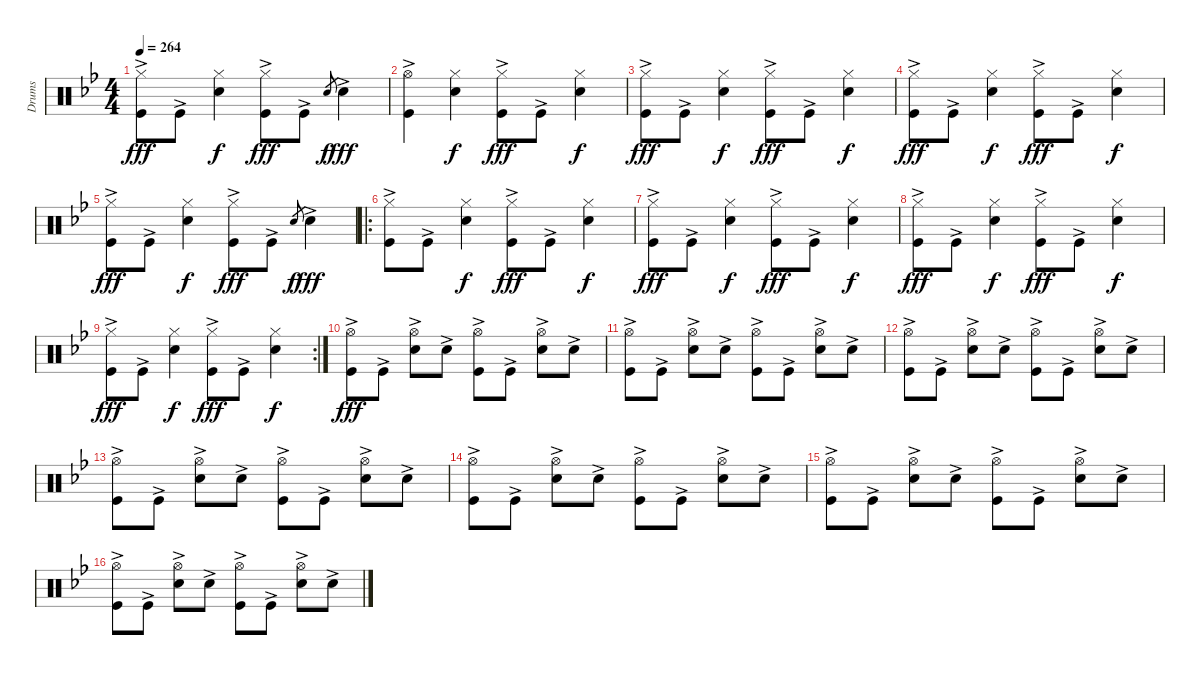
\track ("Drums" "Drums") {instrument percussion}
\staff {score}
\articulation defaults
\ts (4 4)
\tempo 264
\clef neutral
\ks gminor
("Hi-Hat (closed)" "Kick (hit)"{ac}).8{dy fff} "Kick (hit)"{ac}.8 ("Hi-Hat (closed)" "Snare (hit) 2").4{dy f} ("Hi-Hat (closed)" "Kick (hit)"{ac}).8{dy fff} "Kick (hit)"{ac}.8 "Snare (hit) 2".8{gr dy f} "Snare (hit) 2"{ac}.4{dy fff} |
("Hi-Hat (open)" "Kick (hit)"{ac}).4 ("Hi-Hat (closed)" "Snare (hit) 2").4{dy f} ("Hi-Hat (closed)" "Kick (hit)"{ac}).8{dy fff} "Kick (hit)"{ac}.8 ("Hi-Hat (closed)" "Snare (hit) 2").4{dy f} |
("Hi-Hat (closed)" "Kick (hit)"{ac}).8{dy fff} "Kick (hit)"{ac}.8 ("Hi-Hat (closed)" "Snare (hit) 2").4{dy f} ("Hi-Hat (closed)" "Kick (hit)"{ac}).8{dy fff} "Kick (hit)"{ac}.8 ("Hi-Hat (closed)" "Snare (hit) 2").4{dy f} |
("Hi-Hat (closed)" "Kick (hit)"{ac}).8{dy fff} "Kick (hit)"{ac}.8 ("Hi-Hat (closed)" "Snare (hit) 2").4{dy f} ("Hi-Hat (closed)" "Kick (hit)"{ac}).8{dy fff} "Kick (hit)"{ac}.8 ("Hi-Hat (closed)" "Snare (hit) 2").4{dy f} |
("Hi-Hat (closed)" "Kick (hit)"{ac}).8{dy fff} "Kick (hit)"{ac}.8 ("Hi-Hat (closed)" "Snare (hit) 2").4{dy f} ("Hi-Hat (closed)" "Kick (hit)"{ac}).8{dy fff} "Kick (hit)"{ac}.8 "Snare (hit) 2".8{gr dy f} "Snare (hit) 2"{ac}.4{dy fff} |
\ro
("Hi-Hat (closed)" "Kick (hit)"{ac}).8 "Kick (hit)"{ac}.8 ("Hi-Hat (closed)" "Snare (hit) 2").4{dy f} ("Hi-Hat (closed)" "Kick (hit)"{ac}).8{dy fff} "Kick (hit)"{ac}.8 ("Hi-Hat (closed)" "Snare (hit) 2").4{dy f} |
("Hi-Hat (closed)" "Kick (hit)"{ac}).8{dy fff} "Kick (hit)"{ac}.8 ("Hi-Hat (closed)" "Snare (hit) 2").4{dy f} ("Hi-Hat (closed)" "Kick (hit)"{ac}).8{dy fff} "Kick (hit)"{ac}.8 ("Hi-Hat (closed)" "Snare (hit) 2").4{dy f} |
("Hi-Hat (closed)" "Kick (hit)"{ac}).8{dy fff} "Kick (hit)"{ac}.8 ("Hi-Hat (closed)" "Snare (hit) 2").4{dy f} ("Hi-Hat (closed)" "Kick (hit)"{ac}).8{dy fff} "Kick (hit)"{ac}.8 ("Hi-Hat (closed)" "Snare (hit) 2").4{dy f} |
\rc 2
("Hi-Hat (closed)" "Kick (hit)"{ac}).8{dy fff} "Kick (hit)"{ac}.8 ("Hi-Hat (closed)" "Snare (hit) 2").4{dy f} ("Hi-Hat (closed)" "Kick (hit)"{ac}).8{dy fff} "Kick (hit)"{ac}.8 ("Hi-Hat (closed)" "Snare (hit) 2").4{dy f} |
("Hi-Hat (open)" "Kick (hit)"{ac}).8{dy fff} "Kick (hit)"{ac}.8 ("Hi-Hat (open)" "Snare (hit) 2"{ac}).8 "Snare (hit) 2"{ac}.8 ("Hi-Hat (open)" "Kick (hit)"{ac}).8 "Kick (hit)"{ac}.8 ("Hi-Hat (open)" "Snare (hit) 2"{ac}).8 "Snare (hit) 2"{ac}.8 |
("Hi-Hat (open)" "Kick (hit)"{ac}).8 "Kick (hit)"{ac}.8 ("Hi-Hat (open)" "Snare (hit) 2"{ac}).8 "Snare (hit) 2"{ac}.8 ("Hi-Hat (open)" "Kick (hit)"{ac}).8 "Kick (hit)"{ac}.8 ("Hi-Hat (open)" "Snare (hit) 2"{ac}).8 "Snare (hit) 2"{ac}.8 |
("Hi-Hat (open)" "Kick (hit)"{ac}).8 "Kick (hit)"{ac}.8 ("Hi-Hat (open)" "Snare (hit) 2"{ac}).8 "Snare (hit) 2"{ac}.8 ("Hi-Hat (open)" "Kick (hit)"{ac}).8 "Kick (hit)"{ac}.8 ("Hi-Hat (open)" "Snare (hit) 2"{ac}).8 "Snare (hit) 2"{ac}.8 |
("Hi-Hat (open)" "Kick (hit)"{ac}).8 "Kick (hit)"{ac}.8 ("Hi-Hat (open)" "Snare (hit) 2"{ac}).8 "Snare (hit) 2"{ac}.8 ("Hi-Hat (open)" "Kick (hit)"{ac}).8 "Kick (hit)"{ac}.8 ("Hi-Hat (open)" "Snare (hit) 2"{ac}).8 "Snare (hit) 2"{ac}.8 |
("Hi-Hat (open)" "Kick (hit)"{ac}).8 "Kick (hit)"{ac}.8 ("Hi-Hat (open)" "Snare (hit) 2"{ac}).8 "Snare (hit) 2"{ac}.8 ("Hi-Hat (open)" "Kick (hit)"{ac}).8 "Kick (hit)"{ac}.8 ("Hi-Hat (open)" "Snare (hit) 2"{ac}).8 "Snare (hit) 2"{ac}.8 |
("Hi-Hat (open)" "Kick (hit)"{ac}).8 "Kick (hit)"{ac}.8 ("Hi-Hat (open)" "Snare (hit) 2"{ac}).8 "Snare (hit) 2"{ac}.8 ("Hi-Hat (open)" "Kick (hit)"{ac}).8 "Kick (hit)"{ac}.8 ("Hi-Hat (open)" "Snare (hit) 2"{ac}).8 "Snare (hit) 2"{ac}.8 |
("Hi-Hat (open)" "Kick (hit)"{ac}).8 "Kick (hit)"{ac}.8 ("Hi-Hat (open)" "Snare (hit) 2"{ac}).8 "Snare (hit) 2"{ac}.8 ("Hi-Hat (open)" "Kick (hit)"{ac}).8 "Kick (hit)"{ac}.8 ("Hi-Hat (open)" "Snare (hit) 2"{ac}).8 "Snare (hit) 2"{ac}.8
